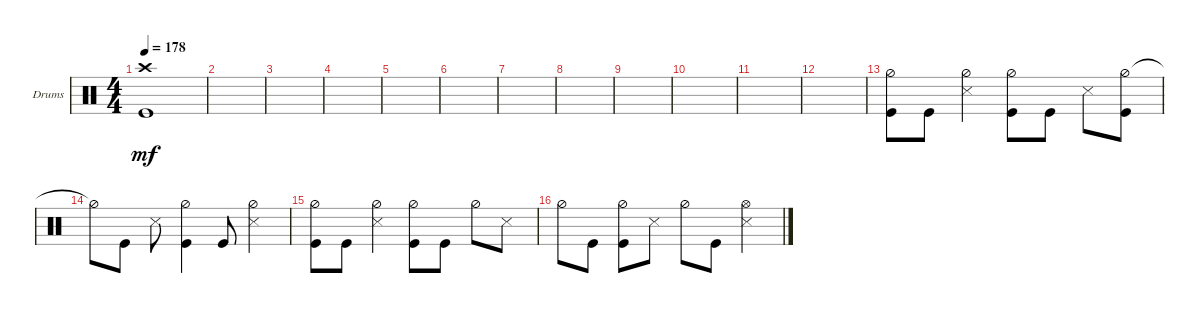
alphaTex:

\defaultSystemsLayout 4
\bracketExtendMode groupsimilarinstruments
\firstSystemTrackNameOrientation horizontal
\otherSystemsTrackNameOrientation horizontal
\track ("Drumkit" "Drums") {instrument percussion}
\staff {score}
\articulation defaults
\ts (4 4)
\tempo 178
\clef neutral
\ks c
("Kick (hit)" "Crash high (hit)").1{dy mf} |
|
|
|
|
|
|
|
|
|
|
|
("Hi-Hat (half)" "Kick (hit)").8 "Kick (hit)".8 ("Hi-Hat (half)" "Snare (side stick) 3").4 ("Hi-Hat (half)" "Kick (hit)").8 "Kick (hit)".8 "Snare (side stick) 3".8 ("Hi-Hat (half)" "Kick (hit)").8 |
"Hi-Hat (half)"{t}.8 "Kick (hit)".8 "Snare (side stick) 3".8 ("Hi-Hat (half)" "Kick (hit)").4 "Kick (hit)".8 ("Snare (side stick) 3" "Hi-Hat (half)").4 |
("Hi-Hat (half)" "Kick (hit)").8 "Kick (hit)".8 ("Hi-Hat (half)" "Snare (side stick) 3").4 ("Hi-Hat (half)" "Kick (hit)").8 "Kick (hit)".8 "Hi-Hat (half)".8 "Snare (side stick) 3".8 |
"Hi-Hat (half)".8 "Kick (hit)".8 ("Hi-Hat (half)" "Kick (hit)").8 "Snare (side stick) 3".8 "Hi-Hat (half)".8 "Kick (hit)".8 ("Hi-Hat (open)" "Snare (side stick) 3").4
